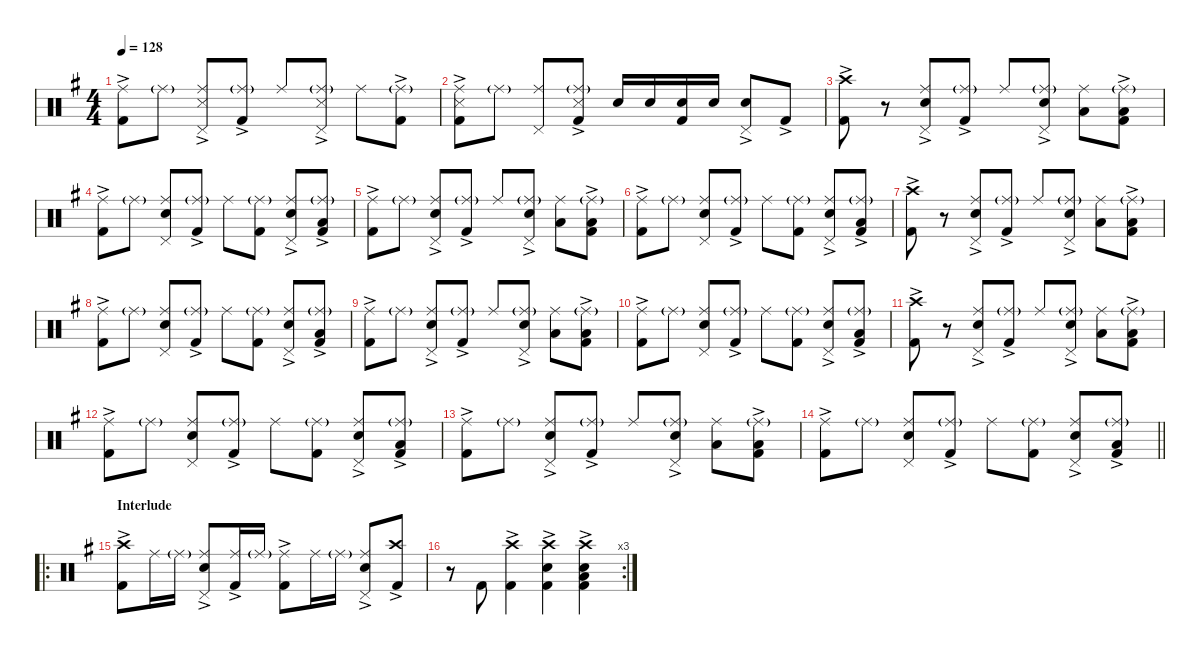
\defaultSystemsLayout 4
\hideDynamics
\bracketExtendMode nobrackets
\singleTrackTrackNamePolicy hidden
\multiTrackTrackNamePolicy hidden
\firstSystemTrackNameMode fullname
\firstSystemTrackNameOrientation horizontal
\otherSystemsTrackNameOrientation horizontal
\track ("Drums" "drm.") {instrument percussion}
\staff {score}
\articulation defaults
\ts (4 4)
\tempo 128
\clef neutral
\ks g
("Ride (middle)"{acc forcenatural} "Kick (hit) 2"{ac acc forcenatural}).8{dy f beam Down} "Ride (middle)"{g acc forcenatural}.8{dy mf beam Down} ("Ride (middle)"{acc forcenatural} "Pedal Hi-Hat (hit)"{acc forcenatural} "Snare (side stick) 3"{ac acc forcenatural}).8{dy f beam Up} ("Ride (middle)"{g acc forcenatural} "Kick (hit) 2"{ac acc forcenatural}).8{dy mf beam Up} "Ride (middle)"{acc forcenatural}.8{dy f beam Up} ("Ride (middle)"{g acc forcenatural} "Pedal Hi-Hat (hit)"{acc forcenatural} "Snare (side stick) 3"{ac acc forcenatural}).8{beam Up} "Ride (middle)"{acc forcenatural}.8{beam Down} ("Ride (middle)"{g acc forcenatural} "Kick (hit) 2"{ac acc forcenatural}).8{dy mf beam Down} |
("Ride (middle)"{acc forcenatural} "Snare (side stick) 3"{ac acc forcenatural} "Kick (hit) 2"{ac acc forcenatural}).8{dy f beam Down} "Ride (middle)"{g acc forcenatural}.8{dy mf beam Down} ("Ride (middle)"{acc forcenatural} "Pedal Hi-Hat (hit)"{acc forcenatural}).8{dy f beam Up} ("Ride (middle)"{g acc forcenatural} "Snare (side stick) 3"{ac acc forcenatural} "Kick (hit) 2"{ac acc forcenatural}).8{dy mf beam Up} "Snare (hit) 2"{acc forcenatural}.16{dy f beam Up} "Snare (hit) 2"{acc forcenatural}.16{beam Up} ("Snare (hit) 2"{acc forcenatural} "Kick (hit) 2"{acc forcenatural}).16{beam Up} "Snare (hit) 2"{acc forcenatural}.16{beam Up} ("Pedal Hi-Hat (hit)"{acc forcenatural} "Snare (hit) 2"{ac acc forcenatural}).8{beam Up} "Kick (hit) 2"{ac acc forcenatural}.8{beam Up} |
("Crash high (hit)"{acc forcenatural} "Kick (hit) 2"{ac acc forcenatural}).8{beam Down} r.8{beam Down} ("Ride (middle)"{acc forcenatural} "Pedal Hi-Hat (hit)"{acc forcenatural} "Snare (hit) 2"{ac acc forcenatural}).8{beam Up} ("Ride (middle)"{g acc forcenatural} "Kick (hit) 2"{ac acc forcenatural}).8{dy mf beam Up} "Ride (middle)"{acc forcenatural}.8{dy f beam Up} ("Ride (middle)"{g acc forcenatural} "Pedal Hi-Hat (hit)"{acc forcenatural} "Snare (hit) 2"{ac acc forcenatural}).8{beam Up} ("Ride (middle)"{acc forcenatural} "Low Tom (hit)"{acc forcenatural}).8{beam Down} ("Ride (middle)"{g acc forcenatural} "Low Floor Tom (hit)"{acc forcenatural} "Kick (hit) 2"{ac acc forcenatural}).8{beam Down} |
("Ride (middle)"{acc forcenatural} "Kick (hit) 2"{ac acc forcenatural}).8{beam Down} "Ride (middle)"{g acc forcenatural}.8{dy mf beam Down} ("Ride (middle)"{acc forcenatural} "Pedal Hi-Hat (hit)"{acc forcenatural} "Snare (hit) 2"{acc forcenatural}).8{dy f beam Up} ("Ride (middle)"{g acc forcenatural} "Kick (hit) 2"{ac acc forcenatural}).8{dy mf beam Up} "Ride (middle)"{acc forcenatural}.8{dy f beam Down} ("Ride (middle)"{g acc forcenatural} "Kick (hit) 2"{acc forcenatural}).8{beam Down} ("Ride (middle)"{acc forcenatural} "Pedal Hi-Hat (hit)"{acc forcenatural} "Snare (hit) 2"{ac acc forcenatural}).8{beam Up} ("Ride (middle)"{g acc forcenatural} "Low Floor Tom (hit)"{acc forcenatural} "Kick (hit) 2"{ac acc forcenatural}).8{beam Up} |
("Ride (middle)"{acc forcenatural} "Kick (hit) 2"{ac acc forcenatural}).8{beam Down} "Ride (middle)"{g acc forcenatural}.8{dy mf beam Down} ("Ride (middle)"{acc forcenatural} "Pedal Hi-Hat (hit)"{acc forcenatural} "Snare (hit) 2"{ac acc forcenatural}).8{dy f beam Up} ("Ride (middle)"{g acc forcenatural} "Kick (hit) 2"{ac acc forcenatural}).8{dy mf beam Up} "Ride (middle)"{acc forcenatural}.8{dy f beam Up} ("Ride (middle)"{g acc forcenatural} "Pedal Hi-Hat (hit)"{acc forcenatural} "Snare (hit) 2"{ac acc forcenatural}).8{beam Up} ("Ride (middle)"{acc forcenatural} "Low Tom (hit)"{acc forcenatural}).8{beam Down} ("Ride (middle)"{g acc forcenatural} "Low Floor Tom (hit)"{acc forcenatural} "Kick (hit) 2"{ac acc forcenatural}).8{beam Down} |
("Ride (middle)"{acc forcenatural} "Kick (hit) 2"{ac acc forcenatural}).8{beam Down} "Ride (middle)"{g acc forcenatural}.8{dy mf beam Down} ("Ride (middle)"{acc forcenatural} "Pedal Hi-Hat (hit)"{acc forcenatural} "Snare (hit) 2"{acc forcenatural}).8{dy f beam Up} ("Ride (middle)"{g acc forcenatural} "Kick (hit) 2"{ac acc forcenatural}).8{dy mf beam Up} "Ride (middle)"{acc forcenatural}.8{dy f beam Down} ("Ride (middle)"{g acc forcenatural} "Kick (hit) 2"{acc forcenatural}).8{beam Down} ("Ride (middle)"{acc forcenatural} "Pedal Hi-Hat (hit)"{acc forcenatural} "Snare (hit) 2"{ac acc forcenatural}).8{beam Up} ("Ride (middle)"{g acc forcenatural} "Low Floor Tom (hit)"{acc forcenatural} "Kick (hit) 2"{ac acc forcenatural}).8{beam Up} |
("Crash high (hit)"{acc forcenatural} "Kick (hit) 2"{ac acc forcenatural}).8{beam Down} r.8{beam Down} ("Ride (middle)"{acc forcenatural} "Pedal Hi-Hat (hit)"{acc forcenatural} "Snare (hit) 2"{ac acc forcenatural}).8{beam Up} ("Ride (middle)"{g acc forcenatural} "Kick (hit) 2"{ac acc forcenatural}).8{dy mf beam Up} "Ride (middle)"{acc forcenatural}.8{dy f beam Up} ("Ride (middle)"{g acc forcenatural} "Pedal Hi-Hat (hit)"{acc forcenatural} "Snare (hit) 2"{ac acc forcenatural}).8{beam Up} ("Ride (middle)"{acc forcenatural} "Low Tom (hit)"{acc forcenatural}).8{beam Down} ("Ride (middle)"{g acc forcenatural} "Low Floor Tom (hit)"{acc forcenatural} "Kick (hit) 2"{ac acc forcenatural}).8{beam Down} |
("Ride (middle)"{acc forcenatural} "Kick (hit) 2"{ac acc forcenatural}).8{beam Down} "Ride (middle)"{g acc forcenatural}.8{dy mf beam Down} ("Ride (middle)"{acc forcenatural} "Pedal Hi-Hat (hit)"{acc forcenatural} "Snare (hit) 2"{acc forcenatural}).8{dy f beam Up} ("Ride (middle)"{g acc forcenatural} "Kick (hit) 2"{ac acc forcenatural}).8{dy mf beam Up} "Ride (middle)"{acc forcenatural}.8{dy f beam Down} ("Ride (middle)"{g acc forcenatural} "Kick (hit) 2"{acc forcenatural}).8{beam Down} ("Ride (middle)"{acc forcenatural} "Pedal Hi-Hat (hit)"{acc forcenatural} "Snare (hit) 2"{ac acc forcenatural}).8{beam Up} ("Ride (middle)"{g acc forcenatural} "Low Floor Tom (hit)"{acc forcenatural} "Kick (hit) 2"{ac acc forcenatural}).8{beam Up} |
("Ride (middle)"{acc forcenatural} "Kick (hit) 2"{ac acc forcenatural}).8{beam Down} "Ride (middle)"{g acc forcenatural}.8{dy mf beam Down} ("Ride (middle)"{acc forcenatural} "Pedal Hi-Hat (hit)"{acc forcenatural} "Snare (hit) 2"{ac acc forcenatural}).8{dy f beam Up} ("Ride (middle)"{g acc forcenatural} "Kick (hit) 2"{ac acc forcenatural}).8{dy mf beam Up} "Ride (middle)"{acc forcenatural}.8{dy f beam Up} ("Ride (middle)"{g acc forcenatural} "Pedal Hi-Hat (hit)"{acc forcenatural} "Snare (hit) 2"{ac acc forcenatural}).8{beam Up} ("Ride (middle)"{acc forcenatural} "Low Tom (hit)"{acc forcenatural}).8{beam Down} ("Ride (middle)"{g acc forcenatural} "Low Floor Tom (hit)"{acc forcenatural} "Kick (hit) 2"{ac acc forcenatural}).8{beam Down} |
("Ride (middle)"{acc forcenatural} "Kick (hit) 2"{ac acc forcenatural}).8{beam Down} "Ride (middle)"{g acc forcenatural}.8{dy mf beam Down} ("Ride (middle)"{acc forcenatural} "Pedal Hi-Hat (hit)"{acc forcenatural} "Snare (hit) 2"{acc forcenatural}).8{dy f beam Up} ("Ride (middle)"{g acc forcenatural} "Kick (hit) 2"{ac acc forcenatural}).8{dy mf beam Up} "Ride (middle)"{acc forcenatural}.8{dy f beam Down} ("Ride (middle)"{g acc forcenatural} "Kick (hit) 2"{acc forcenatural}).8{beam Down} ("Ride (middle)"{acc forcenatural} "Pedal Hi-Hat (hit)"{acc forcenatural} "Snare (hit) 2"{ac acc forcenatural}).8{beam Up} ("Ride (middle)"{g acc forcenatural} "Low Floor Tom (hit)"{acc forcenatural} "Kick (hit) 2"{ac acc forcenatural}).8{beam Up} |
("Crash high (hit)"{acc forcenatural} "Kick (hit) 2"{ac acc forcenatural}).8{beam Down} r.8{beam Down} ("Ride (middle)"{acc forcenatural} "Pedal Hi-Hat (hit)"{acc forcenatural} "Snare (hit) 2"{ac acc forcenatural}).8{beam Up} ("Ride (middle)"{g acc forcenatural} "Kick (hit) 2"{ac acc forcenatural}).8{dy mf beam Up} "Ride (middle)"{acc forcenatural}.8{dy f beam Up} ("Ride (middle)"{g acc forcenatural} "Pedal Hi-Hat (hit)"{acc forcenatural} "Snare (hit) 2"{ac acc forcenatural}).8{beam Up} ("Ride (middle)"{acc forcenatural} "Low Tom (hit)"{acc forcenatural}).8{beam Down} ("Ride (middle)"{g acc forcenatural} "Low Floor Tom (hit)"{acc forcenatural} "Kick (hit) 2"{ac acc forcenatural}).8{beam Down} |
("Ride (middle)"{acc forcenatural} "Kick (hit) 2"{ac acc forcenatural}).8{beam Down} "Ride (middle)"{g acc forcenatural}.8{dy mf beam Down} ("Ride (middle)"{acc forcenatural} "Pedal Hi-Hat (hit)"{acc forcenatural} "Snare (hit) 2"{acc forcenatural}).8{dy f beam Up} ("Ride (middle)"{g acc forcenatural} "Kick (hit) 2"{ac acc forcenatural}).8{dy mf beam Up} "Ride (middle)"{acc forcenatural}.8{dy f beam Down} ("Ride (middle)"{g acc forcenatural} "Kick (hit) 2"{acc forcenatural}).8{beam Down} ("Ride (middle)"{acc forcenatural} "Pedal Hi-Hat (hit)"{acc forcenatural} "Snare (hit) 2"{ac acc forcenatural}).8{beam Up} ("Ride (middle)"{g acc forcenatural} "Low Floor Tom (hit)"{acc forcenatural} "Kick (hit) 2"{ac acc forcenatural}).8{beam Up} |
("Ride (middle)"{acc forcenatural} "Kick (hit) 2"{ac acc forcenatural}).8{beam Down} "Ride (middle)"{g acc forcenatural}.8{dy mf beam Down} ("Ride (middle)"{acc forcenatural} "Pedal Hi-Hat (hit)"{acc forcenatural} "Snare (hit) 2"{ac acc forcenatural}).8{dy f beam Up} ("Ride (middle)"{g acc forcenatural} "Kick (hit) 2"{ac acc forcenatural}).8{dy mf beam Up} "Ride (middle)"{acc forcenatural}.8{dy f beam Up} ("Ride (middle)"{g acc forcenatural} "Pedal Hi-Hat (hit)"{acc forcenatural} "Snare (hit) 2"{ac acc forcenatural}).8{beam Up} ("Ride (middle)"{acc forcenatural} "Low Tom (hit)"{acc forcenatural}).8{beam Down} ("Ride (middle)"{g acc forcenatural} "Low Floor Tom (hit)"{acc forcenatural} "Kick (hit) 2"{ac acc forcenatural}).8{beam Down} |
\barLineRight lightlight
("Ride (middle)"{acc forcenatural} "Kick (hit) 2"{ac acc forcenatural}).8{beam Down} "Ride (middle)"{g acc forcenatural}.8{dy mf beam Down} ("Ride (middle)"{acc forcenatural} "Pedal Hi-Hat (hit)"{acc forcenatural} "Snare (hit) 2"{acc forcenatural}).8{dy f beam Up} ("Ride (middle)"{g acc forcenatural} "Kick (hit) 2"{ac acc forcenatural}).8{dy mf beam Up} "Ride (middle)"{acc forcenatural}.8{dy f beam Down} ("Ride (middle)"{g acc forcenatural} "Kick (hit) 2"{acc forcenatural}).8{beam Down} ("Ride (middle)"{acc forcenatural} "Pedal Hi-Hat (hit)"{acc forcenatural} "Snare (hit) 2"{ac acc forcenatural}).8{beam Up} ("Ride (middle)"{g acc forcenatural} "Low Floor Tom (hit)"{acc forcenatural} "Kick (hit) 2"{ac acc forcenatural}).8{beam Up} |
\ro
\section ("" "Interlude")
("Crash high (hit)"{acc forcenatural} "Kick (hit) 2"{ac acc forcenatural}).8{beam Down} "Ride (middle)"{acc forcenatural}.16{beam Down} "Ride (middle)"{g acc forcenatural}.16{dy mf beam Down} ("Ride (middle)"{acc forcenatural} "Pedal Hi-Hat (hit)"{acc forcenatural} "Snare (hit) 2"{ac acc forcenatural}).8{dy f beam Up} ("Ride (middle)"{acc forcenatural} "Kick (hit) 2"{ac acc forcenatural}).16{beam Up} "Ride (middle)"{g acc forcenatural}.16{dy mf beam Up} ("Ride (middle)"{acc forcenatural} "Kick (hit) 2"{ac acc forcenatural}).8{dy f beam Down} "Ride (middle)"{acc forcenatural}.16{beam Down} "Ride (middle)"{g acc forcenatural}.16{dy mf beam Down} ("Ride (middle)"{acc forcenatural} "Pedal Hi-Hat (hit)"{acc forcenatural} "Snare (hit) 2"{ac acc forcenatural}).8{dy f beam Up} ("Crash high (hit)"{acc forcenatural} "Kick (hit) 2"{ac acc forcenatural}).8{beam Up} |
\rc 3
r.8{beam Down} "Kick (hit) 2"{acc forcenatural}.8{beam Up} ("Crash high (hit)"{acc forcenatural} "Kick (hit) 2"{ac acc forcenatural}).4{beam Down} ("Crash high (hit)"{acc forcenatural} "Snare (hit) 2"{acc forcenatural} "Kick (hit) 2"{ac acc forcenatural}).4{beam Down} ("Crash high (hit)"{acc forcenatural} "Snare (hit) 2"{acc forcenatural} "Low Floor Tom (hit)"{acc forcenatural} "Kick (hit) 2"{ac acc forcenatural}).4{beam Down}
